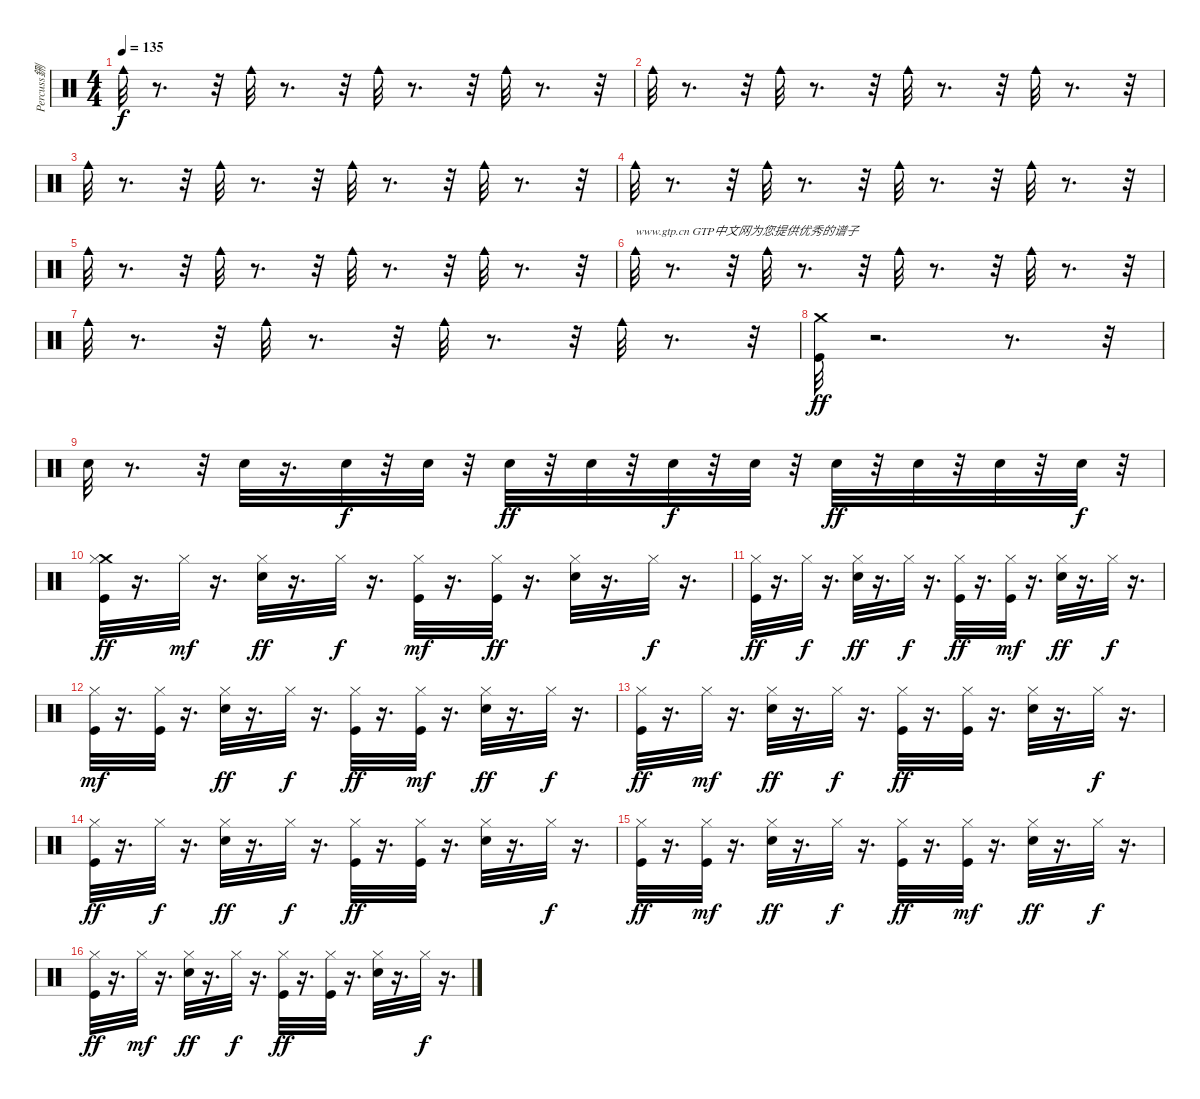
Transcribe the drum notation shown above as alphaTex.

\track ("Percuss鉶" "Percuss鉶") {instrument percussion}
\staff {score}
\articulation defaults
\ts (4 4)
\tempo 135
\clef neutral
\ks c "Cowbell medium (hit)".32{dy f}
r.8{d} r.32 "Cowbell medium (hit)".32 r.8{d} r.32 "Cowbell medium (hit)".32 r.8{d} r.32 "Cowbell medium (hit)".32 r.8{d} r.32 |
"Cowbell medium (hit)".32 r.8{d} r.32 "Cowbell medium (hit)".32 r.8{d} r.32 "Cowbell medium (hit)".32 r.8{d} r.32 "Cowbell medium (hit)".32 r.8{d} r.32 |
"Cowbell medium (hit)".32 r.8{d} r.32 "Cowbell medium (hit)".32 r.8{d} r.32 "Cowbell medium (hit)".32 r.8{d} r.32 "Cowbell medium (hit)".32 r.8{d} r.32 |
"Cowbell medium (hit)".32 r.8{d} r.32 "Cowbell medium (hit)".32 r.8{d} r.32 "Cowbell medium (hit)".32 r.8{d} r.32 "Cowbell medium (hit)".32 r.8{d} r.32 |
"Cowbell medium (hit)".32 r.8{d} r.32 "Cowbell medium (hit)".32 r.8{d} r.32 "Cowbell medium (hit)".32 r.8{d} r.32 "Cowbell medium (hit)".32 r.8{d} r.32 |
"Cowbell medium (hit)".32{txt "www.gtp.cn GTP中文网为您提供优秀的谱子"} r.8{d} r.32 "Cowbell medium (hit)".32 r.8{d} r.32 "Cowbell medium (hit)".32 r.8{d} r.32 "Cowbell medium (hit)".32 r.8{d} r.32 |
"Cowbell medium (hit)".32 r.8{d} r.32 "Cowbell medium (hit)".32 r.8{d} r.32 "Cowbell medium (hit)".32 r.8{d} r.32 "Cowbell medium (hit)".32 r.8{d} r.32 |
("Kick (hit)" "Crash medium (hit)").32{dy ff} r.2{d} r.8{d} r.32 |
"Electric Snare (hit)".32 r.8{d} r.32 "Electric Snare (hit)".32 r.16{d} "Electric Snare (hit)".32{dy f} r.32 "Electric Snare (hit)".32 r.32 "Electric Snare (hit)".32{dy ff} r.32 "Electric Snare (hit)".32 r.32 "Electric Snare (hit)".32{dy f} r.32 "Electric Snare (hit)".32 r.32 "Electric Snare (hit)".32{dy ff} r.32 "Electric Snare (hit)".32 r.32 "Electric Snare (hit)".32 r.32 "Electric Snare (hit)".32{dy f} r.32 |
("Kick (hit)" "Crash medium (hit)" "Hi-Hat (closed)").32{dy ff} r.16{d} "Hi-Hat (closed)".32{dy mf} r.16{d} ("Electric Snare (hit)" "Hi-Hat (closed)").32{dy ff} r.16{d} "Hi-Hat (closed)".32{dy f} r.16{d} ("Kick (hit)" "Hi-Hat (closed)").32{dy mf} r.16{d} ("Hi-Hat (closed)" "Kick (hit)").32{dy ff} r.16{d} ("Electric Snare (hit)" "Hi-Hat (closed)").32 r.16{d} "Hi-Hat (closed)".32{dy f} r.16{d} |
("Hi-Hat (closed)" "Kick (hit)").32{dy ff} r.16{d} "Hi-Hat (closed)".32{dy f} r.16{d} ("Electric Snare (hit)" "Hi-Hat (closed)").32{dy ff} r.16{d} "Hi-Hat (closed)".32{dy f} r.16{d} ("Hi-Hat (closed)" "Kick (hit)").32{dy ff} r.16{d} ("Kick (hit)" "Hi-Hat (closed)").32{dy mf} r.16{d} ("Electric Snare (hit)" "Hi-Hat (closed)").32{dy ff} r.16{d} "Hi-Hat (closed)".32{dy f} r.16{d} |
("Kick (hit)" "Hi-Hat (closed)").32{dy mf} r.16{d} ("Kick (hit)" "Hi-Hat (closed)").32 r.16{d} ("Hi-Hat (closed)" "Electric Snare (hit)").32{dy ff} r.16{d} "Hi-Hat (closed)".32{dy f} r.16{d} ("Kick (hit)" "Hi-Hat (closed)").32{dy ff} r.16{d} ("Kick (hit)" "Hi-Hat (closed)").32{dy mf} r.16{d} ("Hi-Hat (closed)" "Electric Snare (hit)").32{dy ff} r.16{d} "Hi-Hat (closed)".32{dy f} r.16{d} |
("Kick (hit)" "Hi-Hat (closed)").32{dy ff} r.16{d} "Hi-Hat (closed)".32{dy mf} r.16{d} ("Electric Snare (hit)" "Hi-Hat (closed)").32{dy ff} r.16{d} "Hi-Hat (closed)".32{dy f} r.16{d} ("Hi-Hat (closed)" "Kick (hit)").32{dy ff} r.16{d} ("Hi-Hat (closed)" "Kick (hit)").32 r.16{d} ("Hi-Hat (closed)" "Electric Snare (hit)").32 r.16{d} "Hi-Hat (closed)".32{dy f} r.16{d} |
("Hi-Hat (closed)" "Kick (hit)").32{dy ff} r.16{d} "Hi-Hat (closed)".32{dy f} r.16{d} ("Electric Snare (hit)" "Hi-Hat (closed)").32{dy ff} r.16{d} "Hi-Hat (closed)".32{dy f} r.16{d} ("Kick (hit)" "Hi-Hat (closed)").32{dy ff} r.16{d} ("Hi-Hat (closed)" "Kick (hit)").32 r.16{d} ("Electric Snare (hit)" "Hi-Hat (closed)").32 r.16{d} "Hi-Hat (closed)".32{dy f} r.16{d} |
("Hi-Hat (closed)" "Kick (hit)").32{dy ff} r.16{d} ("Kick (hit)" "Hi-Hat (closed)").32{dy mf} r.16{d} ("Hi-Hat (closed)" "Electric Snare (hit)").32{dy ff} r.16{d} "Hi-Hat (closed)".32{dy f} r.16{d} ("Hi-Hat (closed)" "Kick (hit)").32{dy ff} r.16{d} ("Kick (hit)" "Hi-Hat (closed)").32{dy mf} r.16{d} ("Hi-Hat (closed)" "Electric Snare (hit)").32{dy ff} r.16{d} "Hi-Hat (closed)".32{dy f} r.16{d} |
("Kick (hit)" "Hi-Hat (closed)").32{dy ff} r.16{d} "Hi-Hat (closed)".32{dy mf} r.16{d} ("Electric Snare (hit)" "Hi-Hat (closed)").32{dy ff} r.16{d} "Hi-Hat (closed)".32{dy f} r.16{d} ("Hi-Hat (closed)" "Kick (hit)").32{dy ff} r.16{d} ("Hi-Hat (closed)" "Kick (hit)").32 r.16{d} ("Hi-Hat (closed)" "Electric Snare (hit)").32 r.16{d} "Hi-Hat (closed)".32{dy f} r.16{d}
